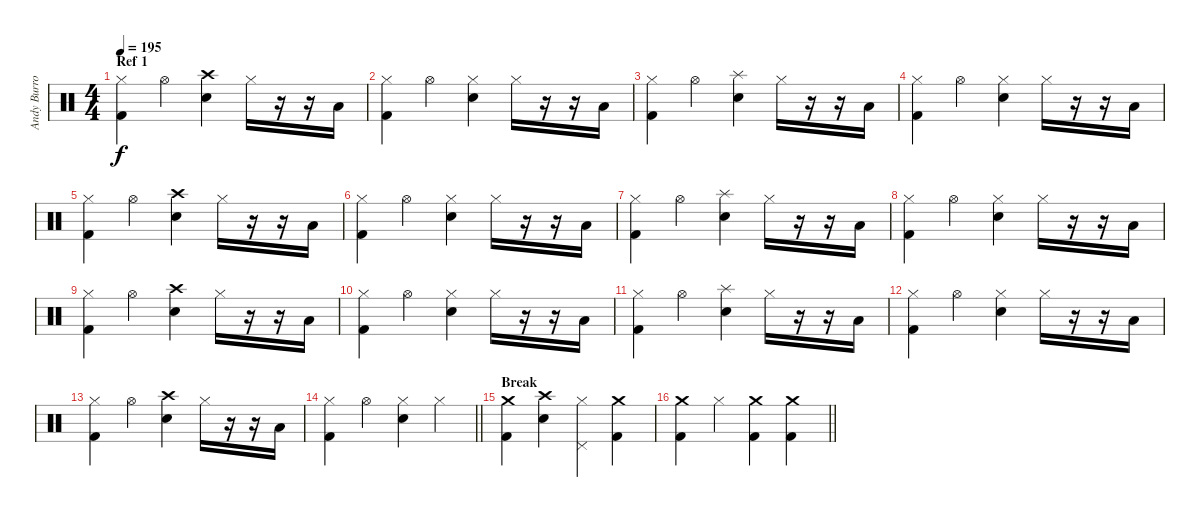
\track ("Andy Burrows (drums)" "Andy Burro") {instrument percussion}
\staff {score}
\articulation defaults
\ts (4 4)
\section ("" "Ref 1")
\tempo 195
\clef neutral
\ks c
("Hi-Hat (closed)" "Kick (hit) 2").4{dy f} "Hi-Hat (open)".4 ("Crash high (hit)" "Electric Snare (hit)").4 "Hi-Hat (closed)".16 r.16 r.16 "Low Floor Tom (hit)".16 |
("Hi-Hat (closed)" "Kick (hit) 2").4 "Hi-Hat (open)".4 ("Hi-Hat (closed)" "Electric Snare (hit)").4 "Hi-Hat (closed)".16 r.16 r.16 "Low Floor Tom (hit)".16 |
("Hi-Hat (closed)" "Kick (hit) 2").4 "Hi-Hat (open)".4 ("Splash (hit)" "Electric Snare (hit)").4 "Hi-Hat (closed)".16 r.16 r.16 "Low Floor Tom (hit)".16 |
("Hi-Hat (closed)" "Kick (hit) 2").4 "Hi-Hat (open)".4 ("Hi-Hat (closed)" "Electric Snare (hit)").4 "Hi-Hat (closed)".16 r.16 r.16 "Low Floor Tom (hit)".16 |
("Hi-Hat (closed)" "Kick (hit) 2").4 "Hi-Hat (open)".4 ("Crash high (hit)" "Electric Snare (hit)").4 "Hi-Hat (closed)".16 r.16 r.16 "Low Floor Tom (hit)".16 |
("Hi-Hat (closed)" "Kick (hit) 2").4 "Hi-Hat (open)".4 ("Hi-Hat (closed)" "Electric Snare (hit)").4 "Hi-Hat (closed)".16 r.16 r.16 "Low Floor Tom (hit)".16 |
("Hi-Hat (closed)" "Kick (hit) 2").4 "Hi-Hat (open)".4 ("Splash (hit)" "Electric Snare (hit)").4 "Hi-Hat (closed)".16 r.16 r.16 "Low Floor Tom (hit)".16 |
("Hi-Hat (closed)" "Kick (hit) 2").4 "Hi-Hat (open)".4 ("Hi-Hat (closed)" "Electric Snare (hit)").4 "Hi-Hat (closed)".16 r.16 r.16 "Low Floor Tom (hit)".16 |
("Hi-Hat (closed)" "Kick (hit) 2").4 "Hi-Hat (open)".4 ("Crash high (hit)" "Electric Snare (hit)").4 "Hi-Hat (closed)".16 r.16 r.16 "Low Floor Tom (hit)".16 |
("Hi-Hat (closed)" "Kick (hit) 2").4 "Hi-Hat (open)".4 ("Hi-Hat (closed)" "Electric Snare (hit)").4 "Hi-Hat (closed)".16 r.16 r.16 "Low Floor Tom (hit)".16 |
("Hi-Hat (closed)" "Kick (hit) 2").4 "Hi-Hat (open)".4 ("Splash (hit)" "Electric Snare (hit)").4 "Hi-Hat (closed)".16 r.16 r.16 "Low Floor Tom (hit)".16 |
("Hi-Hat (closed)" "Kick (hit) 2").4 "Hi-Hat (open)".4 ("Hi-Hat (closed)" "Electric Snare (hit)").4 "Hi-Hat (closed)".16 r.16 r.16 "Low Floor Tom (hit)".16 |
("Hi-Hat (closed)" "Kick (hit) 2").4 "Hi-Hat (open)".4 ("Crash high (hit)" "Electric Snare (hit)").4 "Hi-Hat (closed)".16 r.16 r.16 "Low Floor Tom (hit)".16 |
\barLineRight lightlight
("Hi-Hat (closed)" "Kick (hit) 2").4 "Hi-Hat (open)".4 ("Hi-Hat (closed)" "Electric Snare (hit)").4 "Hi-Hat (closed)".4 |
\section ("" "Break")
("Crash medium (hit)" "Kick (hit) 2").4 ("Crash high (hit)" "Electric Snare (hit)").4 ("Pedal Hi-Hat (hit)" "Hi-Hat (closed)").4 ("Crash medium (hit)" "Kick (hit) 2").4 |
\barLineRight lightlight
("Crash medium (hit)" "Kick (hit) 2").4 "Hi-Hat (closed)".4 ("Crash medium (hit)" "Kick (hit) 2").4 ("Crash medium (hit)" "Kick (hit) 2").4
